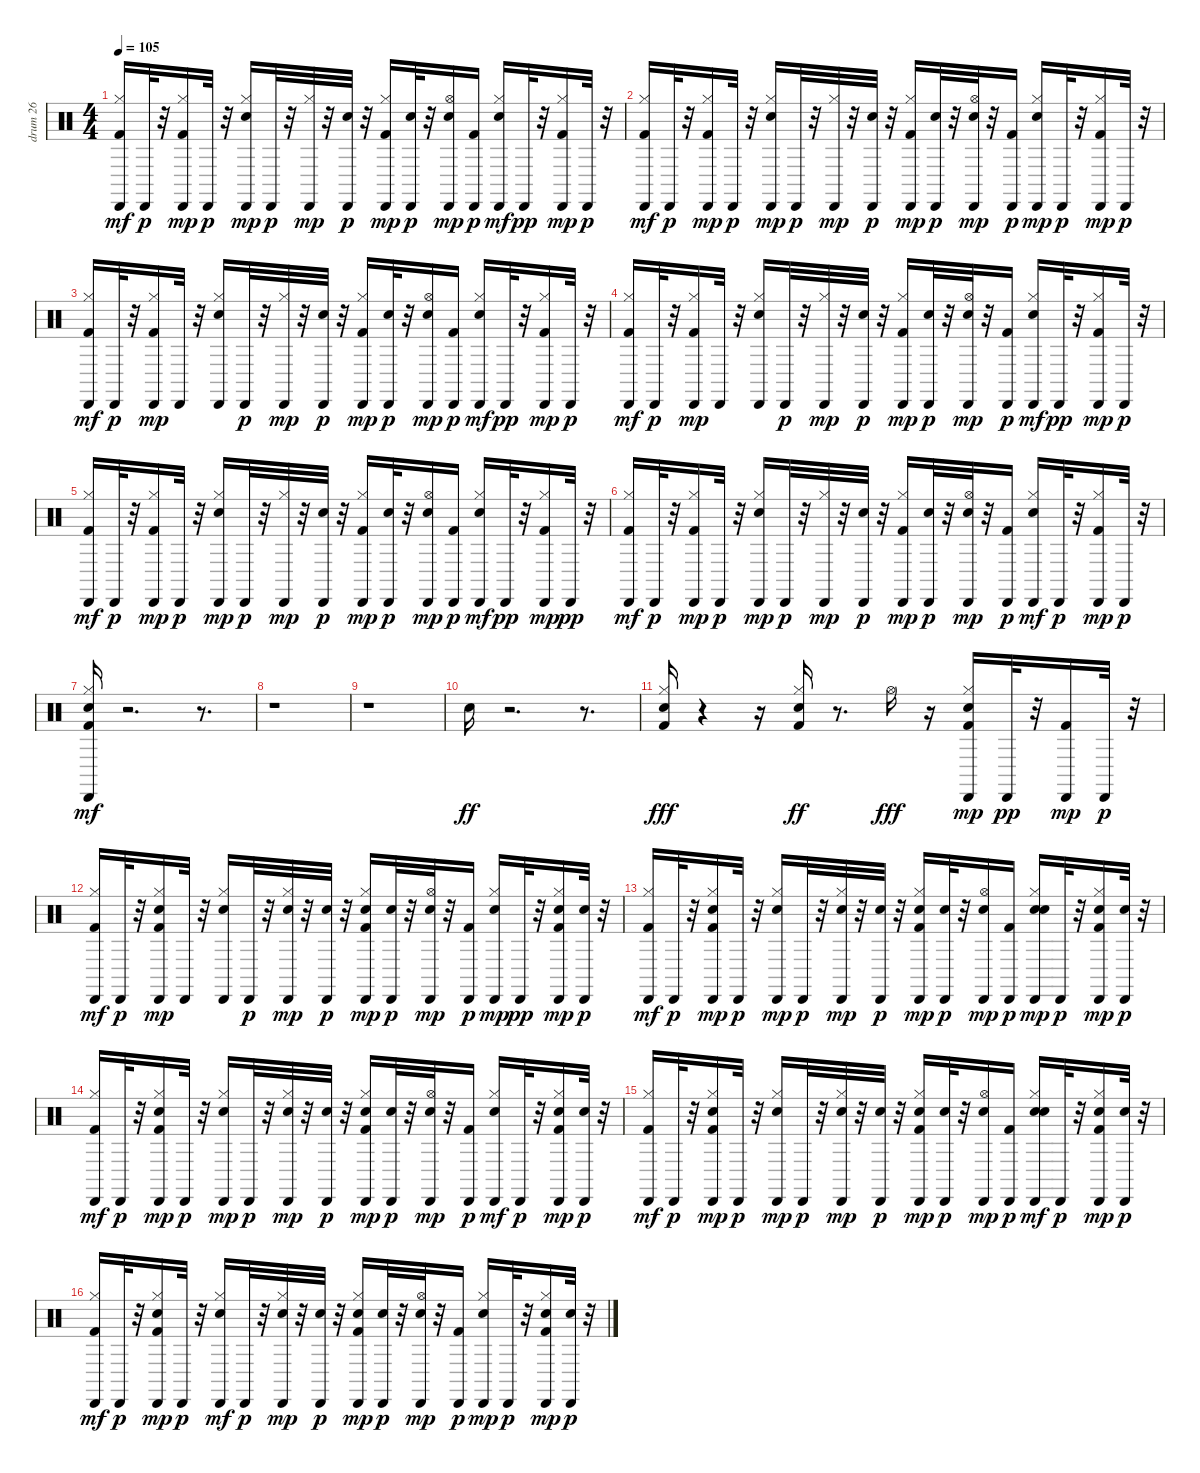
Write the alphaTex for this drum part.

\track ("drum 26" "drum 26") {instrument percussion}
\staff {score}
\articulation defaults
\ts (4 4)
\tempo 105
\clef neutral
\ks c
("Kick (hit) 2" "Hi-Hat (closed)" "Cabasa (hit)").16{dy mf} "Cabasa (hit)".32{dy p} r.32 ("Kick (hit) 2" "Hi-Hat (closed)" "Cabasa (hit)").16{dy mp} "Cabasa (hit)".32{dy p} r.32 ("Snare (hit) 2" "Hi-Hat (closed)" "Cabasa (hit)").16{dy mp} "Cabasa (hit)".32{dy p} r.32 ("Hi-Hat (closed)" "Cabasa (hit)").32{dy mp} r.32 ("Electric Snare (hit)" "Cabasa (hit)").32{dy p} r.32 ("Kick (hit) 2" "Hi-Hat (closed)" "Cabasa (hit)").16{dy mp} ("Electric Snare (hit)" "Cabasa (hit)").32{dy p} r.32 ("Electric Snare (hit)" "Hi-Hat (open)" "Cabasa (hit)").16{dy mp} ("Kick (hit) 2" "Cabasa (hit)").16{dy p} ("Snare (hit) 2" "Hi-Hat (closed)" "Cabasa (hit)").16{dy mf} "Cabasa (hit)".32{dy pp} r.32 ("Kick (hit) 2" "Hi-Hat (closed)" "Cabasa (hit)").16{dy mp} "Cabasa (hit)".32{dy p} r.32 |
("Kick (hit) 2" "Hi-Hat (closed)" "Cabasa (hit)").16{dy mf} "Cabasa (hit)".32{dy p} r.32 ("Kick (hit) 2" "Hi-Hat (closed)" "Cabasa (hit)").16{dy mp} "Cabasa (hit)".32{dy p} r.32 ("Snare (hit) 2" "Hi-Hat (closed)" "Cabasa (hit)").16{dy mp} "Cabasa (hit)".32{dy p} r.32 ("Hi-Hat (closed)" "Cabasa (hit)").32{dy mp} r.32 ("Electric Snare (hit)" "Cabasa (hit)").32{dy p} r.32 ("Kick (hit) 2" "Hi-Hat (closed)" "Cabasa (hit)").16{dy mp} ("Electric Snare (hit)" "Cabasa (hit)").32{dy p} r.32 ("Electric Snare (hit)" "Hi-Hat (open)" "Cabasa (hit)").32{dy mp} r.32 ("Kick (hit) 2" "Cabasa (hit)").16{dy p} ("Snare (hit) 2" "Hi-Hat (closed)" "Cabasa (hit)").16{dy mp} "Cabasa (hit)".32{dy p} r.32 ("Kick (hit) 2" "Hi-Hat (closed)" "Cabasa (hit)").16{dy mp} "Cabasa (hit)".32{dy p} r.32 |
("Kick (hit) 2" "Hi-Hat (closed)" "Cabasa (hit)").16{dy mf} "Cabasa (hit)".32{dy p} r.32 ("Kick (hit) 2" "Hi-Hat (closed)" "Cabasa (hit)").16{dy mp} "Cabasa (hit)".32 r.32 ("Snare (hit) 2" "Hi-Hat (closed)" "Cabasa (hit)").16 "Cabasa (hit)".32{dy p} r.32 ("Hi-Hat (closed)" "Cabasa (hit)").32{dy mp} r.32 ("Electric Snare (hit)" "Cabasa (hit)").32{dy p} r.32 ("Kick (hit) 2" "Hi-Hat (closed)" "Cabasa (hit)").16{dy mp} ("Electric Snare (hit)" "Cabasa (hit)").32{dy p} r.32 ("Electric Snare (hit)" "Hi-Hat (open)" "Cabasa (hit)").16{dy mp} ("Kick (hit) 2" "Cabasa (hit)").16{dy p} ("Snare (hit) 2" "Hi-Hat (closed)" "Cabasa (hit)").16{dy mf} "Cabasa (hit)".32{dy pp} r.32 ("Kick (hit) 2" "Hi-Hat (closed)" "Cabasa (hit)").16{dy mp} "Cabasa (hit)".32{dy p} r.32 |
("Kick (hit) 2" "Hi-Hat (closed)" "Cabasa (hit)").16{dy mf} "Cabasa (hit)".32{dy p} r.32 ("Kick (hit) 2" "Hi-Hat (closed)" "Cabasa (hit)").16{dy mp} "Cabasa (hit)".32 r.32 ("Snare (hit) 2" "Hi-Hat (closed)" "Cabasa (hit)").16 "Cabasa (hit)".32{dy p} r.32 ("Hi-Hat (closed)" "Cabasa (hit)").32{dy mp} r.32 ("Electric Snare (hit)" "Cabasa (hit)").32{dy p} r.32 ("Kick (hit) 2" "Hi-Hat (closed)" "Cabasa (hit)").16{dy mp} ("Electric Snare (hit)" "Cabasa (hit)").32{dy p} r.32 ("Electric Snare (hit)" "Hi-Hat (open)" "Cabasa (hit)").32{dy mp} r.32 ("Kick (hit) 2" "Cabasa (hit)").16{dy p} ("Snare (hit) 2" "Hi-Hat (closed)" "Cabasa (hit)").16{dy mf} "Cabasa (hit)".32{dy pp} r.32 ("Kick (hit) 2" "Hi-Hat (closed)" "Cabasa (hit)").16{dy mp} "Cabasa (hit)".32{dy p} r.32 |
("Kick (hit) 2" "Hi-Hat (closed)" "Cabasa (hit)").16{dy mf} "Cabasa (hit)".32{dy p} r.32 ("Kick (hit) 2" "Hi-Hat (closed)" "Cabasa (hit)").16{dy mp} "Cabasa (hit)".32{dy p} r.32 ("Snare (hit) 2" "Hi-Hat (closed)" "Cabasa (hit)").16{dy mp} "Cabasa (hit)".32{dy p} r.32 ("Hi-Hat (closed)" "Cabasa (hit)").32{dy mp} r.32 ("Electric Snare (hit)" "Cabasa (hit)").32{dy p} r.32 ("Kick (hit) 2" "Hi-Hat (closed)" "Cabasa (hit)").16{dy mp} ("Electric Snare (hit)" "Cabasa (hit)").32{dy p} r.32 ("Electric Snare (hit)" "Hi-Hat (open)" "Cabasa (hit)").16{dy mp} ("Kick (hit) 2" "Cabasa (hit)").16{dy p} ("Snare (hit) 2" "Hi-Hat (closed)" "Cabasa (hit)").16{dy mf} "Cabasa (hit)".32{dy pp} r.32 ("Kick (hit) 2" "Hi-Hat (closed)" "Cabasa (hit)").16{dy mp} "Cabasa (hit)".32{dy pp} r.32 |
("Kick (hit) 2" "Hi-Hat (closed)" "Cabasa (hit)").16{dy mf} "Cabasa (hit)".32{dy p} r.32 ("Kick (hit) 2" "Hi-Hat (closed)" "Cabasa (hit)").16{dy mp} "Cabasa (hit)".32{dy p} r.32 ("Snare (hit) 2" "Hi-Hat (closed)" "Cabasa (hit)").16{dy mp} "Cabasa (hit)".32{dy p} r.32 ("Hi-Hat (closed)" "Cabasa (hit)").32{dy mp} r.32 ("Electric Snare (hit)" "Cabasa (hit)").32{dy p} r.32 ("Kick (hit) 2" "Hi-Hat (closed)" "Cabasa (hit)").16{dy mp} ("Electric Snare (hit)" "Cabasa (hit)").32{dy p} r.32 ("Electric Snare (hit)" "Hi-Hat (open)" "Cabasa (hit)").32{dy mp} r.32 ("Kick (hit) 2" "Cabasa (hit)").16{dy p} ("Snare (hit) 2" "Hi-Hat (closed)" "Cabasa (hit)").16{dy mf} "Cabasa (hit)".32{dy p} r.32 ("Kick (hit) 2" "Hi-Hat (closed)" "Cabasa (hit)").16{dy mp} "Cabasa (hit)".32{dy p} r.32 |
("Kick (hit) 2" "Snare (hit) 2" "Hi-Hat (closed)" "Cabasa (hit)").16{dy mf} r.2{d} r.8{d} |
r.1 |
r.1 |
"Snare (hit) 2".16{dy ff} r.2{d} r.8{d} |
("Kick (hit) 2" "Snare (hit) 2" "Hi-Hat (closed)").16{dy fff} r.4 r.16 ("Kick (hit) 2" "Snare (hit) 2" "Hi-Hat (closed)").16{dy ff} r.8{d} "Hi-Hat (open)".16{dy fff} r.16 ("Kick (hit) 2" "Snare (hit) 2" "Hi-Hat (closed)" "Cabasa (hit)").16{dy mp} "Cabasa (hit)".32{dy pp} r.32 ("Kick (hit) 2" "Cabasa (hit)").16{dy mp} "Cabasa (hit)".32{dy p} r.32 |
("Kick (hit) 2" "Hi-Hat (closed)" "Cabasa (hit)").16{dy mf} "Cabasa (hit)".32{dy p} r.32 ("Metronome (bell)" "Kick (hit) 2" "Hi-Hat (closed)" "Cabasa (hit)").16{dy mp} "Cabasa (hit)".32 r.32 ("Snare (hit) 2" "Hi-Hat (closed)" "Cabasa (hit)").16 "Cabasa (hit)".32{dy p} r.32 ("Electric Snare (hit)" "Hi-Hat (closed)" "Cabasa (hit)").32{dy mp} r.32 ("Electric Snare (hit)" "Cabasa (hit)").32{dy p} r.32 ("Metronome (bell)" "Kick (hit) 2" "Hi-Hat (closed)" "Cabasa (hit)").16{dy mp} ("Electric Snare (hit)" "Cabasa (hit)").32{dy p} r.32 ("Electric Snare (hit)" "Hi-Hat (open)" "Cabasa (hit)").32{dy mp} r.32 ("Kick (hit) 2" "Cabasa (hit)").16{dy p} ("Snare (hit) 2" "Hi-Hat (closed)" "Cabasa (hit)").16{dy mp} "Cabasa (hit)".32{dy pp} r.32 ("Kick (hit) 2" "Electric Snare (hit)" "Hi-Hat (closed)" "Cabasa (hit)").16{dy mp} ("Electric Snare (hit)" "Cabasa (hit)").32{dy p} r.32 |
("Kick (hit) 2" "Hi-Hat (closed)" "Cabasa (hit)").16{dy mf} "Cabasa (hit)".32{dy p} r.32 ("Metronome (bell)" "Kick (hit) 2" "Hi-Hat (closed)" "Cabasa (hit)").16{dy mp} "Cabasa (hit)".32{dy p} r.32 ("Snare (hit) 2" "Hi-Hat (closed)" "Cabasa (hit)").16{dy mp} "Cabasa (hit)".32{dy p} r.32 ("Electric Snare (hit)" "Hi-Hat (closed)" "Cabasa (hit)").32{dy mp} r.32 ("Electric Snare (hit)" "Cabasa (hit)").32{dy p} r.32 ("Metronome (bell)" "Kick (hit) 2" "Hi-Hat (closed)" "Cabasa (hit)").16{dy mp} ("Electric Snare (hit)" "Cabasa (hit)").32{dy p} r.32 ("Electric Snare (hit)" "Hi-Hat (open)" "Cabasa (hit)").16{dy mp} ("Kick (hit) 2" "Cabasa (hit)").16{dy p} ("Snare (hit) 2" "Electric Snare (hit)" "Hi-Hat (closed)" "Cabasa (hit)").16{dy mp} "Cabasa (hit)".32{dy p} r.32 ("Kick (hit) 2" "Electric Snare (hit)" "Hi-Hat (closed)" "Cabasa (hit)").16{dy mp} ("Electric Snare (hit)" "Cabasa (hit)").32{dy p} r.32 |
("Kick (hit) 2" "Hi-Hat (closed)" "Cabasa (hit)").16{dy mf} "Cabasa (hit)".32{dy p} r.32 ("Metronome (bell)" "Kick (hit) 2" "Hi-Hat (closed)" "Cabasa (hit)").16{dy mp} "Cabasa (hit)".32{dy p} r.32 ("Snare (hit) 2" "Hi-Hat (closed)" "Cabasa (hit)").16{dy mp} "Cabasa (hit)".32{dy p} r.32 ("Electric Snare (hit)" "Hi-Hat (closed)" "Cabasa (hit)").32{dy mp} r.32 ("Electric Snare (hit)" "Cabasa (hit)").32{dy p} r.32 ("Metronome (bell)" "Kick (hit) 2" "Hi-Hat (closed)" "Cabasa (hit)").16{dy mp} ("Electric Snare (hit)" "Cabasa (hit)").32{dy p} r.32 ("Electric Snare (hit)" "Hi-Hat (open)" "Cabasa (hit)").32{dy mp} r.32 ("Kick (hit) 2" "Cabasa (hit)").16{dy p} ("Snare (hit) 2" "Hi-Hat (closed)" "Cabasa (hit)").16{dy mf} "Cabasa (hit)".32{dy p} r.32 ("Kick (hit) 2" "Electric Snare (hit)" "Hi-Hat (closed)" "Cabasa (hit)").16{dy mp} ("Electric Snare (hit)" "Cabasa (hit)").32{dy p} r.32 |
("Kick (hit) 2" "Hi-Hat (closed)" "Cabasa (hit)").16{dy mf} "Cabasa (hit)".32{dy p} r.32 ("Metronome (bell)" "Kick (hit) 2" "Hi-Hat (closed)" "Cabasa (hit)").16{dy mp} "Cabasa (hit)".32{dy p} r.32 ("Snare (hit) 2" "Hi-Hat (closed)" "Cabasa (hit)").16{dy mp} "Cabasa (hit)".32{dy p} r.32 ("Electric Snare (hit)" "Hi-Hat (closed)" "Cabasa (hit)").32{dy mp} r.32 ("Electric Snare (hit)" "Cabasa (hit)").32{dy p} r.32 ("Metronome (bell)" "Kick (hit) 2" "Hi-Hat (closed)" "Cabasa (hit)").16{dy mp} ("Electric Snare (hit)" "Cabasa (hit)").32{dy p} r.32 ("Electric Snare (hit)" "Hi-Hat (open)" "Cabasa (hit)").16{dy mp} ("Kick (hit) 2" "Cabasa (hit)").16{dy p} ("Snare (hit) 2" "Electric Snare (hit)" "Hi-Hat (closed)" "Cabasa (hit)").16{dy mf} "Cabasa (hit)".32{dy p} r.32 ("Kick (hit) 2" "Electric Snare (hit)" "Hi-Hat (closed)" "Cabasa (hit)").16{dy mp} ("Electric Snare (hit)" "Cabasa (hit)").32{dy p} r.32 |
("Kick (hit) 2" "Hi-Hat (closed)" "Cabasa (hit)").16{dy mf} "Cabasa (hit)".32{dy p} r.32 ("Metronome (bell)" "Kick (hit) 2" "Hi-Hat (closed)" "Cabasa (hit)").16{dy mp} "Cabasa (hit)".32{dy p} r.32 ("Snare (hit) 2" "Hi-Hat (closed)" "Cabasa (hit)").16{dy mf} "Cabasa (hit)".32{dy p} r.32 ("Electric Snare (hit)" "Hi-Hat (closed)" "Cabasa (hit)").32{dy mp} r.32 ("Electric Snare (hit)" "Cabasa (hit)").32{dy p} r.32 ("Metronome (bell)" "Kick (hit) 2" "Hi-Hat (closed)" "Cabasa (hit)").16{dy mp} ("Electric Snare (hit)" "Cabasa (hit)").32{dy p} r.32 ("Electric Snare (hit)" "Hi-Hat (open)" "Cabasa (hit)").32{dy mp} r.32 ("Kick (hit) 2" "Cabasa (hit)").16{dy p} ("Snare (hit) 2" "Hi-Hat (closed)" "Cabasa (hit)").16{dy mp} "Cabasa (hit)".32{dy p} r.32 ("Kick (hit) 2" "Electric Snare (hit)" "Hi-Hat (closed)" "Cabasa (hit)").16{dy mp} ("Electric Snare (hit)" "Cabasa (hit)").32{dy p} r.32
